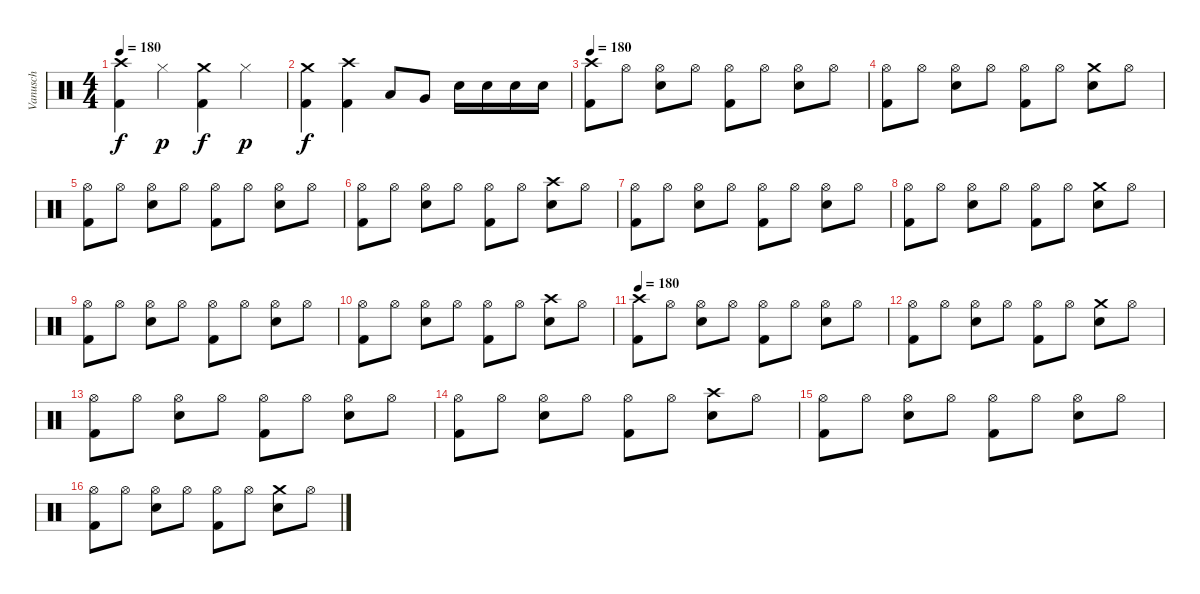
\track ("Vanusch" "Vanusch") {instrument percussion}
\staff {score}
\articulation defaults
\ts (4 4)
\tempo 180
\clef neutral
\ks c
("Crash high (hit)" "Kick (hit) 2").4{dy f} "Hi-Hat (closed)".4{dy p} ("Crash medium (hit)" "Kick (hit) 2").4{dy f} "Hi-Hat (closed)".4{dy p} |
("Crash medium (hit)" "Kick (hit) 2").4{dy f} ("Crash high (hit)" "Kick (hit) 2").4 "Low Tom (hit)".8 "Very Low Tom (hit)".8 "Snare (hit) 2".16 "Snare (hit) 2".16 "Snare (hit) 2".16 "Snare (hit) 2".16 |
\tempo 180
("Crash high (hit)" "Kick (hit) 2").8 "Hi-Hat (open)".8 ("Hi-Hat (open)" "Snare (hit) 2").8 "Hi-Hat (open)".8 ("Hi-Hat (open)" "Kick (hit) 2").8 "Hi-Hat (open)".8 ("Hi-Hat (open)" "Snare (hit) 2").8 "Hi-Hat (open)".8 |
("Hi-Hat (open)" "Kick (hit) 2").8 "Hi-Hat (open)".8 ("Hi-Hat (open)" "Snare (hit) 2").8 "Hi-Hat (open)".8 ("Hi-Hat (open)" "Kick (hit) 2").8 "Hi-Hat (open)".8 ("Crash medium (hit)" "Snare (hit) 2").8 "Hi-Hat (open)".8 |
("Hi-Hat (open)" "Kick (hit) 2").8 "Hi-Hat (open)".8 ("Hi-Hat (open)" "Snare (hit) 2").8 "Hi-Hat (open)".8 ("Hi-Hat (open)" "Kick (hit) 2").8 "Hi-Hat (open)".8 ("Hi-Hat (open)" "Snare (hit) 2").8 "Hi-Hat (open)".8 |
("Hi-Hat (open)" "Kick (hit) 2").8 "Hi-Hat (open)".8 ("Hi-Hat (open)" "Snare (hit) 2").8 "Hi-Hat (open)".8 ("Hi-Hat (open)" "Kick (hit) 2").8 "Hi-Hat (open)".8 ("Crash high (hit)" "Snare (hit) 2").8 "Hi-Hat (open)".8 |
("Hi-Hat (open)" "Kick (hit) 2").8 "Hi-Hat (open)".8 ("Hi-Hat (open)" "Snare (hit) 2").8 "Hi-Hat (open)".8 ("Hi-Hat (open)" "Kick (hit) 2").8 "Hi-Hat (open)".8 ("Hi-Hat (open)" "Snare (hit) 2").8 "Hi-Hat (open)".8 |
("Hi-Hat (open)" "Kick (hit) 2").8 "Hi-Hat (open)".8 ("Hi-Hat (open)" "Snare (hit) 2").8 "Hi-Hat (open)".8 ("Hi-Hat (open)" "Kick (hit) 2").8 "Hi-Hat (open)".8 ("Crash medium (hit)" "Snare (hit) 2").8 "Hi-Hat (open)".8 |
("Hi-Hat (open)" "Kick (hit) 2").8 "Hi-Hat (open)".8 ("Hi-Hat (open)" "Snare (hit) 2").8 "Hi-Hat (open)".8 ("Hi-Hat (open)" "Kick (hit) 2").8 "Hi-Hat (open)".8 ("Hi-Hat (open)" "Snare (hit) 2").8 "Hi-Hat (open)".8 |
("Hi-Hat (open)" "Kick (hit) 2").8 "Hi-Hat (open)".8 ("Hi-Hat (open)" "Snare (hit) 2").8 "Hi-Hat (open)".8 ("Hi-Hat (open)" "Kick (hit) 2").8 "Hi-Hat (open)".8 ("Crash high (hit)" "Snare (hit) 2").8 "Hi-Hat (open)".8 |
\tempo 180
("Crash high (hit)" "Kick (hit) 2").8 "Hi-Hat (open)".8 ("Hi-Hat (open)" "Snare (hit) 2").8 "Hi-Hat (open)".8 ("Hi-Hat (open)" "Kick (hit) 2").8 "Hi-Hat (open)".8 ("Hi-Hat (open)" "Snare (hit) 2").8 "Hi-Hat (open)".8 |
("Hi-Hat (open)" "Kick (hit) 2").8 "Hi-Hat (open)".8 ("Hi-Hat (open)" "Snare (hit) 2").8 "Hi-Hat (open)".8 ("Hi-Hat (open)" "Kick (hit) 2").8 "Hi-Hat (open)".8 ("Crash medium (hit)" "Snare (hit) 2").8 "Hi-Hat (open)".8 |
("Hi-Hat (open)" "Kick (hit) 2").8 "Hi-Hat (open)".8 ("Hi-Hat (open)" "Snare (hit) 2").8 "Hi-Hat (open)".8 ("Hi-Hat (open)" "Kick (hit) 2").8 "Hi-Hat (open)".8 ("Hi-Hat (open)" "Snare (hit) 2").8 "Hi-Hat (open)".8 |
("Hi-Hat (open)" "Kick (hit) 2").8 "Hi-Hat (open)".8 ("Hi-Hat (open)" "Snare (hit) 2").8 "Hi-Hat (open)".8 ("Hi-Hat (open)" "Kick (hit) 2").8 "Hi-Hat (open)".8 ("Crash high (hit)" "Snare (hit) 2").8 "Hi-Hat (open)".8 |
("Hi-Hat (open)" "Kick (hit) 2").8 "Hi-Hat (open)".8 ("Hi-Hat (open)" "Snare (hit) 2").8 "Hi-Hat (open)".8 ("Hi-Hat (open)" "Kick (hit) 2").8 "Hi-Hat (open)".8 ("Hi-Hat (open)" "Snare (hit) 2").8 "Hi-Hat (open)".8 |
("Hi-Hat (open)" "Kick (hit) 2").8 "Hi-Hat (open)".8 ("Hi-Hat (open)" "Snare (hit) 2").8 "Hi-Hat (open)".8 ("Hi-Hat (open)" "Kick (hit) 2").8 "Hi-Hat (open)".8 ("Crash medium (hit)" "Snare (hit) 2").8 "Hi-Hat (open)".8
